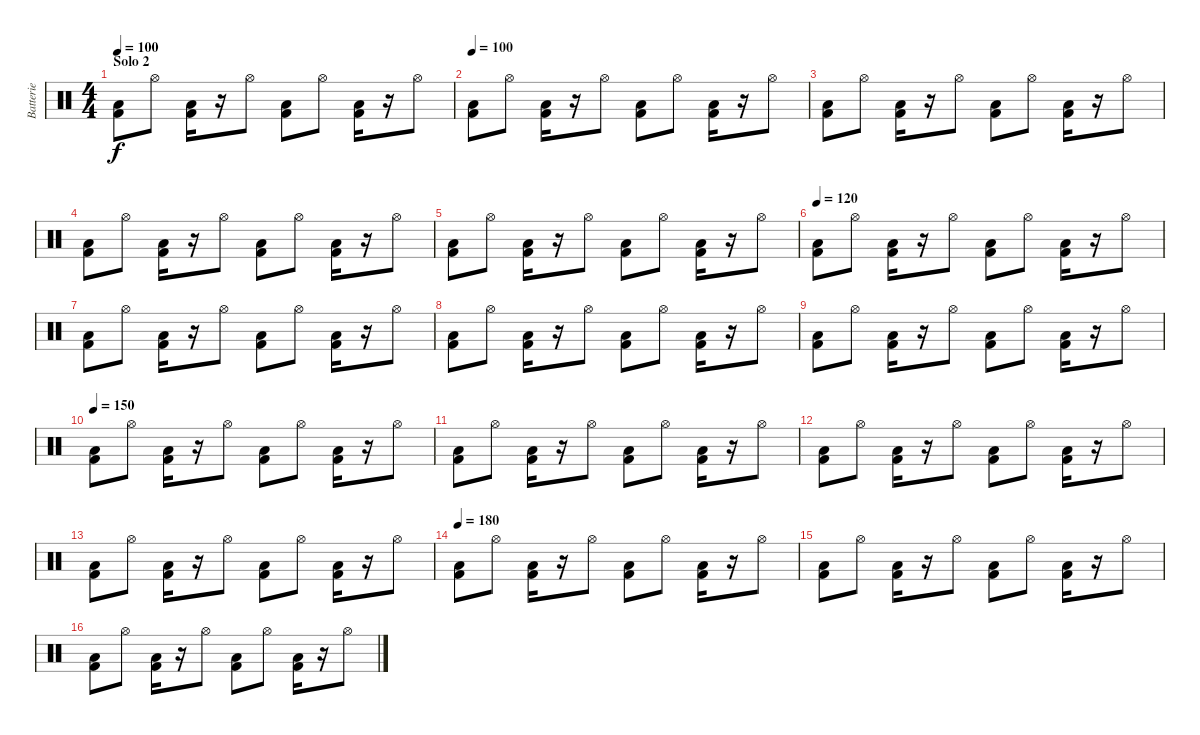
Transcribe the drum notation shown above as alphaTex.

\track ("Batterie" "Batterie") {instrument percussion}
\staff {score}
\articulation defaults
\ts (4 4)
\section ("" "Solo 2")
\tempo 100
\clef neutral
\ks c
("Kick (hit) 2" "Low Floor Tom (hit)").8{dy f} "Hi-Hat (open)".8 ("Kick (hit) 2" "Low Floor Tom (hit)").16 r.16 "Hi-Hat (open)".8 ("Kick (hit) 2" "Low Floor Tom (hit)").8 "Hi-Hat (open)".8 ("Kick (hit) 2" "Low Floor Tom (hit)").16 r.16 "Hi-Hat (open)".8 |
\tempo 100
("Kick (hit) 2" "Low Floor Tom (hit)").8 "Hi-Hat (open)".8 ("Kick (hit) 2" "Low Floor Tom (hit)").16 r.16 "Hi-Hat (open)".8 ("Kick (hit) 2" "Low Floor Tom (hit)").8 "Hi-Hat (open)".8 ("Kick (hit) 2" "Low Floor Tom (hit)").16 r.16 "Hi-Hat (open)".8 |
("Kick (hit) 2" "Low Floor Tom (hit)").8 "Hi-Hat (open)".8 ("Kick (hit) 2" "Low Floor Tom (hit)").16 r.16 "Hi-Hat (open)".8 ("Kick (hit) 2" "Low Floor Tom (hit)").8 "Hi-Hat (open)".8 ("Kick (hit) 2" "Low Floor Tom (hit)").16 r.16 "Hi-Hat (open)".8 |
("Kick (hit) 2" "Low Floor Tom (hit)").8 "Hi-Hat (open)".8 ("Kick (hit) 2" "Low Floor Tom (hit)").16 r.16 "Hi-Hat (open)".8 ("Kick (hit) 2" "Low Floor Tom (hit)").8 "Hi-Hat (open)".8 ("Kick (hit) 2" "Low Floor Tom (hit)").16 r.16 "Hi-Hat (open)".8 |
("Kick (hit) 2" "Low Floor Tom (hit)").8 "Hi-Hat (open)".8 ("Kick (hit) 2" "Low Floor Tom (hit)").16 r.16 "Hi-Hat (open)".8 ("Kick (hit) 2" "Low Floor Tom (hit)").8 "Hi-Hat (open)".8 ("Kick (hit) 2" "Low Floor Tom (hit)").16 r.16 "Hi-Hat (open)".8 |
\tempo 120
("Kick (hit) 2" "Low Floor Tom (hit)").8 "Hi-Hat (open)".8 ("Kick (hit) 2" "Low Floor Tom (hit)").16 r.16 "Hi-Hat (open)".8 ("Kick (hit) 2" "Low Floor Tom (hit)").8 "Hi-Hat (open)".8 ("Kick (hit) 2" "Low Floor Tom (hit)").16 r.16 "Hi-Hat (open)".8 |
("Kick (hit) 2" "Low Floor Tom (hit)").8 "Hi-Hat (open)".8 ("Kick (hit) 2" "Low Floor Tom (hit)").16 r.16 "Hi-Hat (open)".8 ("Kick (hit) 2" "Low Floor Tom (hit)").8 "Hi-Hat (open)".8 ("Kick (hit) 2" "Low Floor Tom (hit)").16 r.16 "Hi-Hat (open)".8 |
("Kick (hit) 2" "Low Floor Tom (hit)").8 "Hi-Hat (open)".8 ("Kick (hit) 2" "Low Floor Tom (hit)").16 r.16 "Hi-Hat (open)".8 ("Kick (hit) 2" "Low Floor Tom (hit)").8 "Hi-Hat (open)".8 ("Kick (hit) 2" "Low Floor Tom (hit)").16 r.16 "Hi-Hat (open)".8 |
("Kick (hit) 2" "Low Floor Tom (hit)").8 "Hi-Hat (open)".8 ("Kick (hit) 2" "Low Floor Tom (hit)").16 r.16 "Hi-Hat (open)".8 ("Kick (hit) 2" "Low Floor Tom (hit)").8 "Hi-Hat (open)".8 ("Kick (hit) 2" "Low Floor Tom (hit)").16 r.16 "Hi-Hat (open)".8 |
\tempo 150
("Kick (hit) 2" "Low Floor Tom (hit)").8 "Hi-Hat (open)".8 ("Kick (hit) 2" "Low Floor Tom (hit)").16 r.16 "Hi-Hat (open)".8 ("Kick (hit) 2" "Low Floor Tom (hit)").8 "Hi-Hat (open)".8 ("Kick (hit) 2" "Low Floor Tom (hit)").16 r.16 "Hi-Hat (open)".8 |
("Kick (hit) 2" "Low Floor Tom (hit)").8 "Hi-Hat (open)".8 ("Kick (hit) 2" "Low Floor Tom (hit)").16 r.16 "Hi-Hat (open)".8 ("Kick (hit) 2" "Low Floor Tom (hit)").8 "Hi-Hat (open)".8 ("Kick (hit) 2" "Low Floor Tom (hit)").16 r.16 "Hi-Hat (open)".8 |
("Kick (hit) 2" "Low Floor Tom (hit)").8 "Hi-Hat (open)".8 ("Kick (hit) 2" "Low Floor Tom (hit)").16 r.16 "Hi-Hat (open)".8 ("Kick (hit) 2" "Low Floor Tom (hit)").8 "Hi-Hat (open)".8 ("Kick (hit) 2" "Low Floor Tom (hit)").16 r.16 "Hi-Hat (open)".8 |
("Kick (hit) 2" "Low Floor Tom (hit)").8 "Hi-Hat (open)".8 ("Kick (hit) 2" "Low Floor Tom (hit)").16 r.16 "Hi-Hat (open)".8 ("Kick (hit) 2" "Low Floor Tom (hit)").8 "Hi-Hat (open)".8 ("Kick (hit) 2" "Low Floor Tom (hit)").16 r.16 "Hi-Hat (open)".8 |
\tempo 180
("Kick (hit) 2" "Low Floor Tom (hit)").8 "Hi-Hat (open)".8 ("Kick (hit) 2" "Low Floor Tom (hit)").16 r.16 "Hi-Hat (open)".8 ("Kick (hit) 2" "Low Floor Tom (hit)").8 "Hi-Hat (open)".8 ("Kick (hit) 2" "Low Floor Tom (hit)").16 r.16 "Hi-Hat (open)".8 |
("Kick (hit) 2" "Low Floor Tom (hit)").8 "Hi-Hat (open)".8 ("Kick (hit) 2" "Low Floor Tom (hit)").16 r.16 "Hi-Hat (open)".8 ("Kick (hit) 2" "Low Floor Tom (hit)").8 "Hi-Hat (open)".8 ("Kick (hit) 2" "Low Floor Tom (hit)").16 r.16 "Hi-Hat (open)".8 |
("Kick (hit) 2" "Low Floor Tom (hit)").8 "Hi-Hat (open)".8 ("Kick (hit) 2" "Low Floor Tom (hit)").16 r.16 "Hi-Hat (open)".8 ("Kick (hit) 2" "Low Floor Tom (hit)").8 "Hi-Hat (open)".8 ("Kick (hit) 2" "Low Floor Tom (hit)").16 r.16 "Hi-Hat (open)".8
